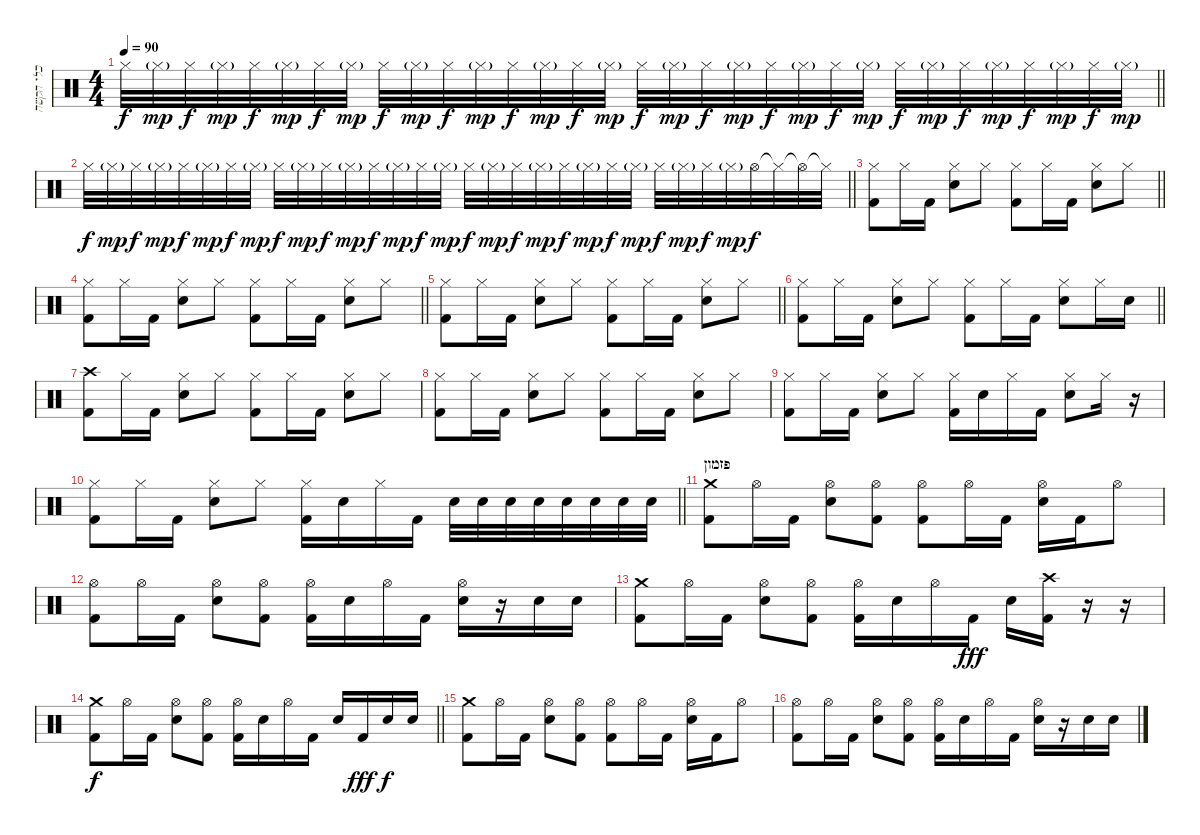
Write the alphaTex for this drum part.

\track ("כלי הקשה" "כלי הקשה") {instrument percussion}
\staff {score}
\articulation defaults
\ts (4 4)
\tempo 90
\clef neutral
\barLineRight lightlight
\ks c "Hi-Hat (closed)".32{dy f} "Hi-Hat (closed)"{g}.32{dy mp} "Hi-Hat (closed)".32{dy f} "Hi-Hat (closed)"{g}.32{dy mp} "Hi-Hat (closed)".32{dy f} "Hi-Hat (closed)"{g}.32{dy mp} "Hi-Hat (closed)".32{dy f} "Hi-Hat (closed)"{g}.32{dy mp} "Hi-Hat (closed)".32{dy f} "Hi-Hat (closed)"{g}.32{dy mp} "Hi-Hat (closed)".32{dy f} "Hi-Hat (closed)"{g}.32{dy mp} "Hi-Hat (closed)".32{dy f} "Hi-Hat (closed)"{g}.32{dy mp} "Hi-Hat (closed)".32{dy f} "Hi-Hat (closed)"{g}.32{dy mp} "Hi-Hat (closed)".32{dy f} "Hi-Hat (closed)"{g}.32{dy mp} "Hi-Hat (closed)".32{dy f} "Hi-Hat (closed)"{g}.32{dy mp} "Hi-Hat (closed)".32{dy f} "Hi-Hat (closed)"{g}.32{dy mp} "Hi-Hat (closed)".32{dy f} "Hi-Hat (closed)"{g}.32{dy mp} "Hi-Hat (closed)".32{dy f} "Hi-Hat (closed)"{g}.32{dy mp} "Hi-Hat (closed)".32{dy f} "Hi-Hat (closed)"{g}.32{dy mp} "Hi-Hat (closed)".32{dy f} "Hi-Hat (closed)"{g}.32{dy mp} "Hi-Hat (closed)".32{dy f} "Hi-Hat (closed)"{g}.32{dy mp}
|
\barLineRight lightlight "Hi-Hat (closed)".32{dy f} "Hi-Hat (closed)"{g}.32{dy mp} "Hi-Hat (closed)".32{dy f} "Hi-Hat (closed)"{g}.32{dy mp} "Hi-Hat (closed)".32{dy f} "Hi-Hat (closed)"{g}.32{dy mp} "Hi-Hat (closed)".32{dy f} "Hi-Hat (closed)"{g}.32{dy mp} "Hi-Hat (closed)".32{dy f} "Hi-Hat (closed)"{g}.32{dy mp} "Hi-Hat (closed)".32{dy f} "Hi-Hat (closed)"{g}.32{dy mp} "Hi-Hat (closed)".32{dy f} "Hi-Hat (closed)"{g}.32{dy mp} "Hi-Hat (closed)".32{dy f} "Hi-Hat (closed)"{g}.32{dy mp} "Hi-Hat (closed)".32{dy f} "Hi-Hat (closed)"{g}.32{dy mp} "Hi-Hat (closed)".32{dy f} "Hi-Hat (closed)"{g}.32{dy mp} "Hi-Hat (closed)".32{dy f} "Hi-Hat (closed)"{g}.32{dy mp} "Hi-Hat (closed)".32{dy f} "Hi-Hat (closed)"{g}.32{dy mp} "Hi-Hat (closed)".32{dy f} "Hi-Hat (closed)"{g}.32{dy mp} "Hi-Hat (closed)".32{dy f} "Hi-Hat (closed)"{g}.32{dy mp} "Hi-Hat (open)".32{dy f} "Hi-Hat (closed)"{t}.32 "Hi-Hat (open)"{t}.32 "Hi-Hat (closed)"{t}.32
|
\barLineRight lightlight
("Hi-Hat (closed)" "Kick (hit) 2").8 "Hi-Hat (closed)".16 "Kick (hit) 2".16 ("Hi-Hat (closed)" "Electric Snare (hit)").8 "Hi-Hat (closed)".8 ("Hi-Hat (closed)" "Kick (hit) 2").8 "Hi-Hat (closed)".16 "Kick (hit) 2".16 ("Hi-Hat (closed)" "Electric Snare (hit)").8 "Hi-Hat (closed)".8 |
\barLineRight lightlight
("Hi-Hat (closed)" "Kick (hit) 2").8 "Hi-Hat (closed)".16 "Kick (hit) 2".16 ("Hi-Hat (closed)" "Electric Snare (hit)").8 "Hi-Hat (closed)".8 ("Hi-Hat (closed)" "Kick (hit) 2").8 "Hi-Hat (closed)".16 "Kick (hit) 2".16 ("Hi-Hat (closed)" "Electric Snare (hit)").8 "Hi-Hat (closed)".8 |
\barLineRight lightlight
("Hi-Hat (closed)" "Kick (hit) 2").8 "Hi-Hat (closed)".16 "Kick (hit) 2".16 ("Hi-Hat (closed)" "Electric Snare (hit)").8 "Hi-Hat (closed)".8 ("Hi-Hat (closed)" "Kick (hit) 2").8 "Hi-Hat (closed)".16 "Kick (hit) 2".16 ("Hi-Hat (closed)" "Electric Snare (hit)").8 "Hi-Hat (closed)".8 |
\barLineRight lightlight
("Hi-Hat (closed)" "Kick (hit) 2").8 "Hi-Hat (closed)".16 "Kick (hit) 2".16 ("Hi-Hat (closed)" "Electric Snare (hit)").8 "Hi-Hat (closed)".8 ("Hi-Hat (closed)" "Kick (hit) 2").8 "Hi-Hat (closed)".16 "Kick (hit) 2".16 ("Hi-Hat (closed)" "Electric Snare (hit)").8 "Hi-Hat (closed)".16 "Electric Snare (hit)".16 |
("Crash high (hit)" "Kick (hit) 2").8 "Hi-Hat (closed)".16 "Kick (hit) 2".16 ("Hi-Hat (closed)" "Electric Snare (hit)").8 "Hi-Hat (closed)".8 ("Hi-Hat (closed)" "Kick (hit) 2").8 "Hi-Hat (closed)".16 "Kick (hit) 2".16 ("Hi-Hat (closed)" "Electric Snare (hit)").8 "Hi-Hat (closed)".8 |
("Hi-Hat (closed)" "Kick (hit) 2").8 "Hi-Hat (closed)".16 "Kick (hit) 2".16 ("Hi-Hat (closed)" "Electric Snare (hit)").8 "Hi-Hat (closed)".8 ("Hi-Hat (closed)" "Kick (hit) 2").8 "Hi-Hat (closed)".16 "Kick (hit) 2".16 ("Hi-Hat (closed)" "Electric Snare (hit)").8 "Hi-Hat (closed)".8 |
("Hi-Hat (closed)" "Kick (hit) 2").8 "Hi-Hat (closed)".16 "Kick (hit) 2".16 ("Hi-Hat (closed)" "Electric Snare (hit)").8 "Hi-Hat (closed)".8 ("Hi-Hat (closed)" "Kick (hit) 2").16 "Electric Snare (hit)".16 "Hi-Hat (closed)".16 "Kick (hit) 2".16 ("Hi-Hat (closed)" "Electric Snare (hit)").8 "Hi-Hat (closed)".16 r.16 |
\barLineRight lightlight
("Hi-Hat (closed)" "Kick (hit) 2").8 "Hi-Hat (closed)".16 "Kick (hit) 2".16 ("Hi-Hat (closed)" "Electric Snare (hit)").8 "Hi-Hat (closed)".8 ("Hi-Hat (closed)" "Kick (hit) 2").16 "Electric Snare (hit)".16 "Hi-Hat (closed)".16 "Kick (hit) 2".16 "Electric Snare (hit)".32 "Electric Snare (hit)".32 "Electric Snare (hit)".32 "Electric Snare (hit)".32 "Electric Snare (hit)".32 "Electric Snare (hit)".32 "Electric Snare (hit)".32 "Electric Snare (hit)".32 |
\section ("" "פזמון")
("Crash medium (hit)" "Kick (hit) 2").8 "Hi-Hat (open)".16 "Kick (hit) 2".16 ("Hi-Hat (open)" "Electric Snare (hit)").8 ("Hi-Hat (open)" "Kick (hit) 2").8 ("Hi-Hat (open)" "Kick (hit) 2").8 "Hi-Hat (open)".16 "Kick (hit) 2".16 ("Hi-Hat (open)" "Electric Snare (hit)").16 "Kick (hit) 2".16 "Hi-Hat (open)".8 |
("Hi-Hat (open)" "Kick (hit) 2").8 "Hi-Hat (open)".16 "Kick (hit) 2".16 ("Hi-Hat (open)" "Electric Snare (hit)").8 ("Hi-Hat (open)" "Kick (hit) 2").8 ("Hi-Hat (open)" "Kick (hit) 2").16 "Electric Snare (hit)".16 "Hi-Hat (open)".16 "Kick (hit) 2".16 ("Hi-Hat (open)" "Electric Snare (hit)").16 r.16 "Electric Snare (hit)".16 "Electric Snare (hit)".16 |
("Crash medium (hit)" "Kick (hit) 2").8 "Hi-Hat (open)".16 "Kick (hit) 2".16 ("Hi-Hat (open)" "Electric Snare (hit)").8 ("Hi-Hat (open)" "Kick (hit) 2").8 ("Hi-Hat (open)" "Kick (hit) 2").16 "Electric Snare (hit)".16 "Hi-Hat (open)".16 "Kick (hit) 2".16{dy fff} "Electric Snare (hit)".16 ("Crash high (hit)" "Kick (hit) 2").16 r.16 r.16 |
\barLineRight lightlight
("Crash medium (hit)" "Kick (hit) 2").8{dy f} "Hi-Hat (open)".16 "Kick (hit) 2".16 ("Hi-Hat (open)" "Electric Snare (hit)").8 ("Hi-Hat (open)" "Kick (hit) 2").8 ("Hi-Hat (open)" "Kick (hit) 2").16 "Electric Snare (hit)".16 "Hi-Hat (open)".16 "Kick (hit) 2".16 "Electric Snare (hit)".16 "Kick (hit) 2".16{dy fff} "Electric Snare (hit)".16{dy f} "Electric Snare (hit)".16 |
("Crash medium (hit)" "Kick (hit) 2").8 "Hi-Hat (open)".16 "Kick (hit) 2".16 ("Hi-Hat (open)" "Electric Snare (hit)").8 ("Hi-Hat (open)" "Kick (hit) 2").8 ("Hi-Hat (open)" "Kick (hit) 2").8 "Hi-Hat (open)".16 "Kick (hit) 2".16 ("Hi-Hat (open)" "Electric Snare (hit)").16 "Kick (hit) 2".16 "Hi-Hat (open)".8 |
("Hi-Hat (open)" "Kick (hit) 2").8 "Hi-Hat (open)".16 "Kick (hit) 2".16 ("Hi-Hat (open)" "Electric Snare (hit)").8 ("Hi-Hat (open)" "Kick (hit) 2").8 ("Hi-Hat (open)" "Kick (hit) 2").16 "Electric Snare (hit)".16 "Hi-Hat (open)".16 "Kick (hit) 2".16 ("Hi-Hat (open)" "Electric Snare (hit)").16 r.16 "Electric Snare (hit)".16 "Electric Snare (hit)".16
